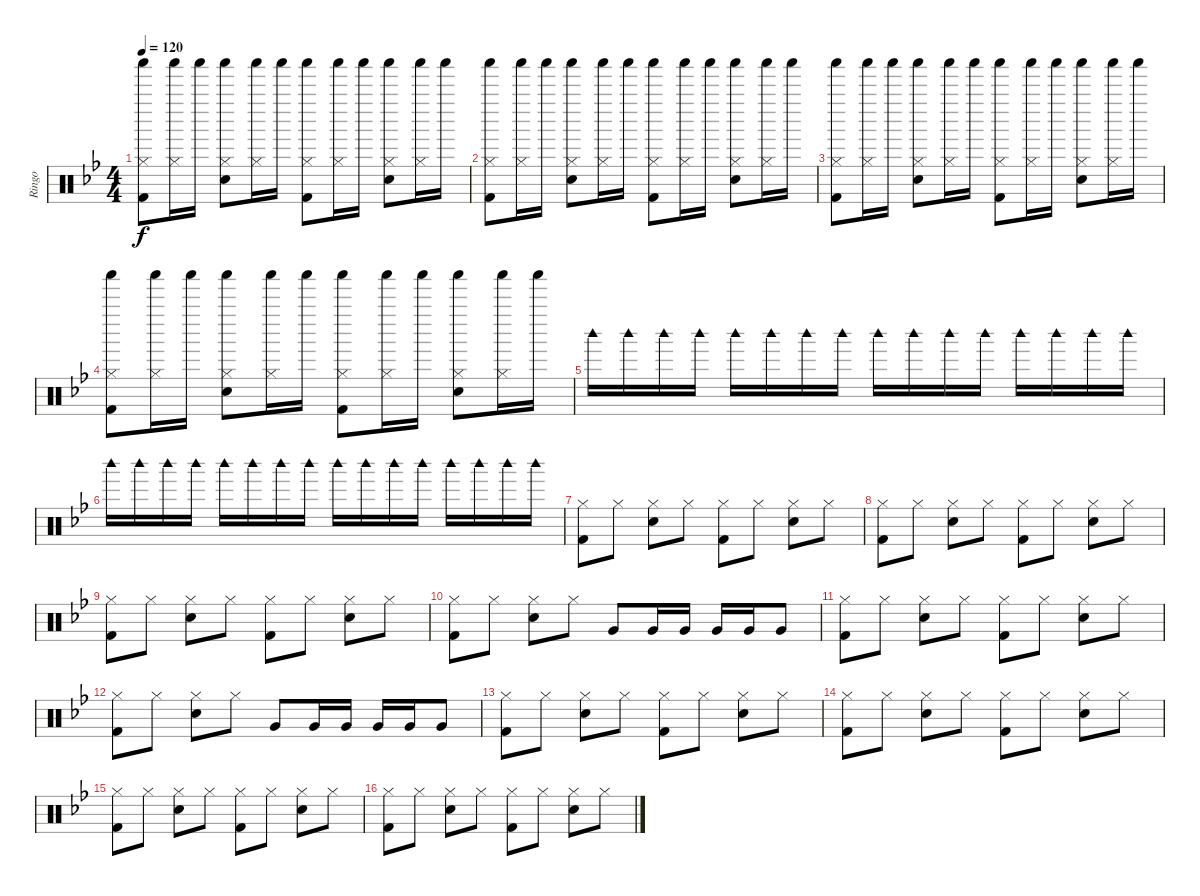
\track ("Ringo" "Ringo") {instrument percussion}
\staff {score}
\articulation defaults
\ts (4 4)
\tempo 120
\clef neutral
\ks bb
("Hi-Hat (closed)" "Kick (hit) 2" "Shaker (hit)").8{dy f} ("Hi-Hat (closed)" "Shaker (hit)").16 "Shaker (hit)".16 ("Hi-Hat (closed)" "Snare (hit) 2" "Shaker (hit)").8 ("Hi-Hat (closed)" "Shaker (hit)").16 "Shaker (hit)".16 ("Hi-Hat (closed)" "Kick (hit) 2" "Shaker (hit)").8 ("Hi-Hat (closed)" "Shaker (hit)").16 "Shaker (hit)".16 ("Hi-Hat (closed)" "Snare (hit) 2" "Shaker (hit)").8 ("Hi-Hat (closed)" "Shaker (hit)").16 "Shaker (hit)".16 |
("Hi-Hat (closed)" "Kick (hit) 2" "Shaker (hit)").8 ("Hi-Hat (closed)" "Shaker (hit)").16 "Shaker (hit)".16 ("Hi-Hat (closed)" "Snare (hit) 2" "Shaker (hit)").8 ("Hi-Hat (closed)" "Shaker (hit)").16 "Shaker (hit)".16 ("Hi-Hat (closed)" "Kick (hit) 2" "Shaker (hit)").8 ("Hi-Hat (closed)" "Shaker (hit)").16 "Shaker (hit)".16 ("Hi-Hat (closed)" "Snare (hit) 2" "Shaker (hit)").8 ("Hi-Hat (closed)" "Shaker (hit)").16 "Shaker (hit)".16 |
("Hi-Hat (closed)" "Kick (hit) 2" "Shaker (hit)").8 ("Hi-Hat (closed)" "Shaker (hit)").16 "Shaker (hit)".16 ("Hi-Hat (closed)" "Snare (hit) 2" "Shaker (hit)").8 ("Hi-Hat (closed)" "Shaker (hit)").16 "Shaker (hit)".16 ("Hi-Hat (closed)" "Kick (hit) 2" "Shaker (hit)").8 ("Hi-Hat (closed)" "Shaker (hit)").16 "Shaker (hit)".16 ("Hi-Hat (closed)" "Snare (hit) 2" "Shaker (hit)").8 ("Hi-Hat (closed)" "Shaker (hit)").16 "Shaker (hit)".16 |
("Hi-Hat (closed)" "Kick (hit) 2" "Shaker (hit)").8 ("Hi-Hat (closed)" "Shaker (hit)").16 "Shaker (hit)".16 ("Hi-Hat (closed)" "Snare (hit) 2" "Shaker (hit)").8 ("Hi-Hat (closed)" "Shaker (hit)").16 "Shaker (hit)".16 ("Hi-Hat (closed)" "Kick (hit) 2" "Shaker (hit)").8 ("Hi-Hat (closed)" "Shaker (hit)").16 "Shaker (hit)".16 ("Hi-Hat (closed)" "Snare (hit) 2" "Shaker (hit)").8 ("Hi-Hat (closed)" "Shaker (hit)").16 "Shaker (hit)".16 |
"Woodblock high (hit)".16 "Woodblock high (hit)".16 "Woodblock high (hit)".16 "Woodblock high (hit)".16 "Woodblock high (hit)".16 "Woodblock high (hit)".16 "Woodblock high (hit)".16 "Woodblock high (hit)".16 "Woodblock high (hit)".16 "Woodblock high (hit)".16 "Woodblock high (hit)".16 "Woodblock high (hit)".16 "Woodblock high (hit)".16 "Woodblock high (hit)".16 "Woodblock high (hit)".16 "Woodblock high (hit)".16 |
"Woodblock high (hit)".16 "Woodblock high (hit)".16 "Woodblock high (hit)".16 "Woodblock high (hit)".16 "Woodblock high (hit)".16 "Woodblock high (hit)".16 "Woodblock high (hit)".16 "Woodblock high (hit)".16 "Woodblock high (hit)".16 "Woodblock high (hit)".16 "Woodblock high (hit)".16 "Woodblock high (hit)".16 "Woodblock high (hit)".16 "Woodblock high (hit)".16 "Woodblock high (hit)".16 "Woodblock high (hit)".16 |
("Hi-Hat (closed)" "Kick (hit) 2").8 "Hi-Hat (closed)".8 ("Hi-Hat (closed)" "Snare (hit) 2").8 "Hi-Hat (closed)".8 ("Hi-Hat (closed)" "Kick (hit) 2").8 "Hi-Hat (closed)".8 ("Hi-Hat (closed)" "Snare (hit) 2").8 "Hi-Hat (closed)".8 |
("Hi-Hat (closed)" "Kick (hit) 2").8 "Hi-Hat (closed)".8 ("Hi-Hat (closed)" "Snare (hit) 2").8 "Hi-Hat (closed)".8 ("Hi-Hat (closed)" "Kick (hit) 2").8 "Hi-Hat (closed)".8 ("Hi-Hat (closed)" "Snare (hit) 2").8 "Hi-Hat (closed)".8 |
("Hi-Hat (closed)" "Kick (hit) 2").8 "Hi-Hat (closed)".8 ("Hi-Hat (closed)" "Snare (hit) 2").8 "Hi-Hat (closed)".8 ("Hi-Hat (closed)" "Kick (hit) 2").8 "Hi-Hat (closed)".8 ("Hi-Hat (closed)" "Snare (hit) 2").8 "Hi-Hat (closed)".8 |
("Hi-Hat (closed)" "Kick (hit) 2").8 "Hi-Hat (closed)".8 ("Hi-Hat (closed)" "Snare (hit) 2").8 "Hi-Hat (closed)".8 "Very Low Tom (hit)".8 "Very Low Tom (hit)".16 "Very Low Tom (hit)".16 "Very Low Tom (hit)".16 "Very Low Tom (hit)".16 "Very Low Tom (hit)".8 |
("Hi-Hat (closed)" "Kick (hit) 2").8 "Hi-Hat (closed)".8 ("Hi-Hat (closed)" "Snare (hit) 2").8 "Hi-Hat (closed)".8 ("Hi-Hat (closed)" "Kick (hit) 2").8 "Hi-Hat (closed)".8 ("Hi-Hat (closed)" "Snare (hit) 2").8 "Hi-Hat (closed)".8 |
("Hi-Hat (closed)" "Kick (hit) 2").8 "Hi-Hat (closed)".8 ("Hi-Hat (closed)" "Snare (hit) 2").8 "Hi-Hat (closed)".8 "Very Low Tom (hit)".8 "Very Low Tom (hit)".16 "Very Low Tom (hit)".16 "Very Low Tom (hit)".16 "Very Low Tom (hit)".16 "Very Low Tom (hit)".8 |
("Hi-Hat (closed)" "Kick (hit) 2").8 "Hi-Hat (closed)".8 ("Hi-Hat (closed)" "Snare (hit) 2").8 "Hi-Hat (closed)".8 ("Hi-Hat (closed)" "Kick (hit) 2").8 "Hi-Hat (closed)".8 ("Hi-Hat (closed)" "Snare (hit) 2").8 "Hi-Hat (closed)".8 |
("Hi-Hat (closed)" "Kick (hit) 2").8 "Hi-Hat (closed)".8 ("Hi-Hat (closed)" "Snare (hit) 2").8 "Hi-Hat (closed)".8 ("Hi-Hat (closed)" "Kick (hit) 2").8 "Hi-Hat (closed)".8 ("Hi-Hat (closed)" "Snare (hit) 2").8 "Hi-Hat (closed)".8 |
("Hi-Hat (closed)" "Kick (hit) 2").8 "Hi-Hat (closed)".8 ("Hi-Hat (closed)" "Snare (hit) 2").8 "Hi-Hat (closed)".8 ("Hi-Hat (closed)" "Kick (hit) 2").8 "Hi-Hat (closed)".8 ("Hi-Hat (closed)" "Snare (hit) 2").8 "Hi-Hat (closed)".8 |
("Hi-Hat (closed)" "Kick (hit) 2").8 "Hi-Hat (closed)".8 ("Hi-Hat (closed)" "Snare (hit) 2").8 "Hi-Hat (closed)".8 ("Hi-Hat (closed)" "Kick (hit) 2").8 "Hi-Hat (closed)".8 ("Hi-Hat (closed)" "Snare (hit) 2").8 "Hi-Hat (closed)".8
